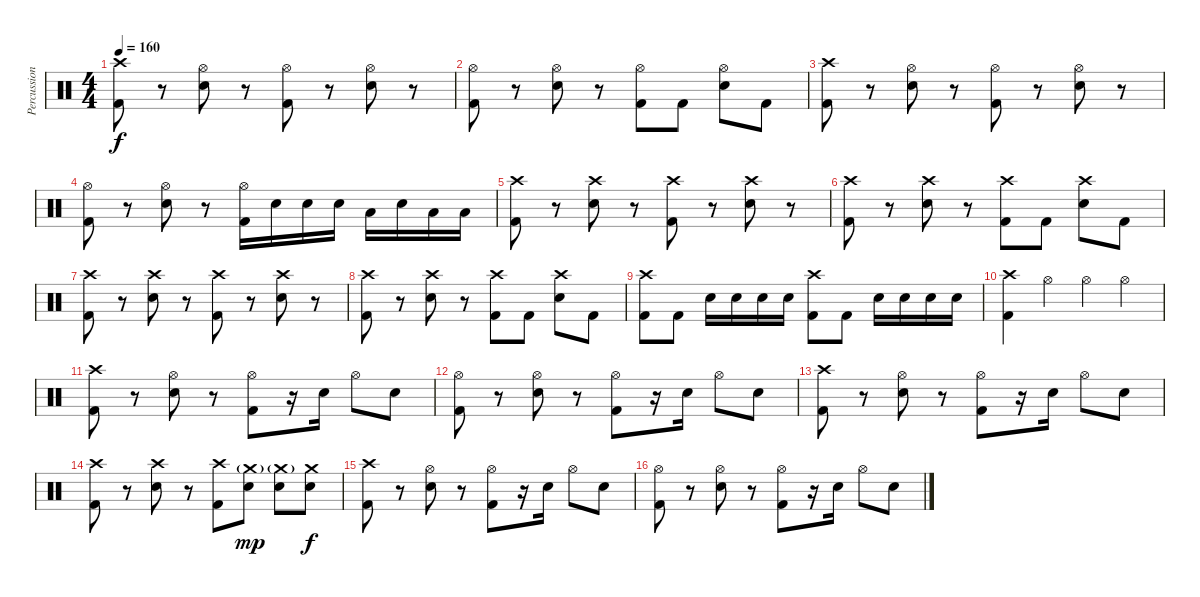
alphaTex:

\track ("Percussion" "Percussion") {instrument percussion}
\staff {score}
\articulation defaults
\ts (4 4)
\tempo 160
\clef neutral
\ks c
("Crash high (hit)" "Kick (hit) 2").8{dy f} r.8 ("Hi-Hat (open)" "Snare (hit) 2").8 r.8 ("Hi-Hat (open)" "Kick (hit) 2").8 r.8 ("Hi-Hat (open)" "Snare (hit) 2").8 r.8 |
("Hi-Hat (open)" "Kick (hit) 2").8 r.8 ("Hi-Hat (open)" "Snare (hit) 2").8 r.8 ("Hi-Hat (open)" "Kick (hit) 2").8 "Kick (hit) 2".8 ("Hi-Hat (open)" "Snare (hit) 2").8 "Kick (hit) 2".8 |
("Crash high (hit)" "Kick (hit) 2").8 r.8 ("Hi-Hat (open)" "Snare (hit) 2").8 r.8 ("Hi-Hat (open)" "Kick (hit) 2").8 r.8 ("Hi-Hat (open)" "Snare (hit) 2").8 r.8 |
("Hi-Hat (open)" "Kick (hit) 2").8 r.8 ("Hi-Hat (open)" "Snare (hit) 2").8 r.8 ("Hi-Hat (open)" "Kick (hit) 2").16 "Snare (hit) 2".16 "Snare (hit) 2".16 "Snare (hit) 2".16 "Low Floor Tom (hit)".16 "Snare (hit) 2".16 "Low Floor Tom (hit)".16 "Low Floor Tom (hit)".16 |
("Crash high (hit)" "Kick (hit) 2").8 r.8 ("Crash high (hit)" "Snare (hit) 2").8 r.8 ("Crash high (hit)" "Kick (hit) 2").8 r.8 ("Crash high (hit)" "Snare (hit) 2").8 r.8 |
("Crash high (hit)" "Kick (hit) 2").8 r.8 ("Crash high (hit)" "Snare (hit) 2").8 r.8 ("Crash high (hit)" "Kick (hit) 2").8 "Kick (hit) 2".8 ("Crash high (hit)" "Snare (hit) 2").8 "Kick (hit) 2".8 |
("Crash high (hit)" "Kick (hit) 2").8 r.8 ("Crash high (hit)" "Snare (hit) 2").8 r.8 ("Crash high (hit)" "Kick (hit) 2").8 r.8 ("Crash high (hit)" "Snare (hit) 2").8 r.8 |
("Crash high (hit)" "Kick (hit) 2").8 r.8 ("Crash high (hit)" "Snare (hit) 2").8 r.8 ("Crash high (hit)" "Kick (hit) 2").8 "Kick (hit) 2".8 ("Crash high (hit)" "Snare (hit) 2").8 "Kick (hit) 2".8 |
("Crash high (hit)" "Kick (hit) 2").8 "Kick (hit) 2".8 "Snare (hit) 2".16 "Snare (hit) 2".16 "Snare (hit) 2".16 "Snare (hit) 2".16 ("Crash high (hit)" "Kick (hit) 2").8 "Kick (hit) 2".8 "Snare (hit) 2".16 "Snare (hit) 2".16 "Snare (hit) 2".16 "Snare (hit) 2".16 |
("Crash high (hit)" "Kick (hit) 2").4 "Hi-Hat (open)".4 "Hi-Hat (open)".4 "Hi-Hat (open)".4 |
("Crash high (hit)" "Kick (hit) 2").8 r.8 ("Hi-Hat (open)" "Snare (hit) 2").8 r.8 ("Hi-Hat (open)" "Kick (hit) 2").8 r.16 "Snare (hit) 2".16 "Hi-Hat (open)".8 "Snare (hit) 2".8 |
("Hi-Hat (open)" "Kick (hit) 2").8 r.8 ("Hi-Hat (open)" "Snare (hit) 2").8 r.8 ("Hi-Hat (open)" "Kick (hit) 2").8 r.16 "Snare (hit) 2".16 "Hi-Hat (open)".8 "Snare (hit) 2".8 |
("Crash high (hit)" "Kick (hit) 2").8 r.8 ("Hi-Hat (open)" "Snare (hit) 2").8 r.8 ("Hi-Hat (open)" "Kick (hit) 2").8 r.16 "Snare (hit) 2".16 "Hi-Hat (open)".8 "Snare (hit) 2".8 |
("Crash high (hit)" "Kick (hit) 2").8 r.8 ("Crash high (hit)" "Snare (hit) 2").8 r.8 ("Crash high (hit)" "Kick (hit) 2").8 ("Crash medium (hit)"{g} "Snare (hit) 2").8{dy mp} ("Crash medium (hit)"{g} "Snare (hit) 2").8 ("Crash medium (hit)" "Snare (hit) 2").8{dy f} |
("Crash high (hit)" "Kick (hit) 2").8 r.8 ("Hi-Hat (open)" "Snare (hit) 2").8 r.8 ("Hi-Hat (open)" "Kick (hit) 2").8 r.16 "Snare (hit) 2".16 "Hi-Hat (open)".8 "Snare (hit) 2".8 |
("Hi-Hat (open)" "Kick (hit) 2").8 r.8 ("Hi-Hat (open)" "Snare (hit) 2").8 r.8 ("Hi-Hat (open)" "Kick (hit) 2").8 r.16 "Snare (hit) 2".16 "Hi-Hat (open)".8 "Snare (hit) 2".8
